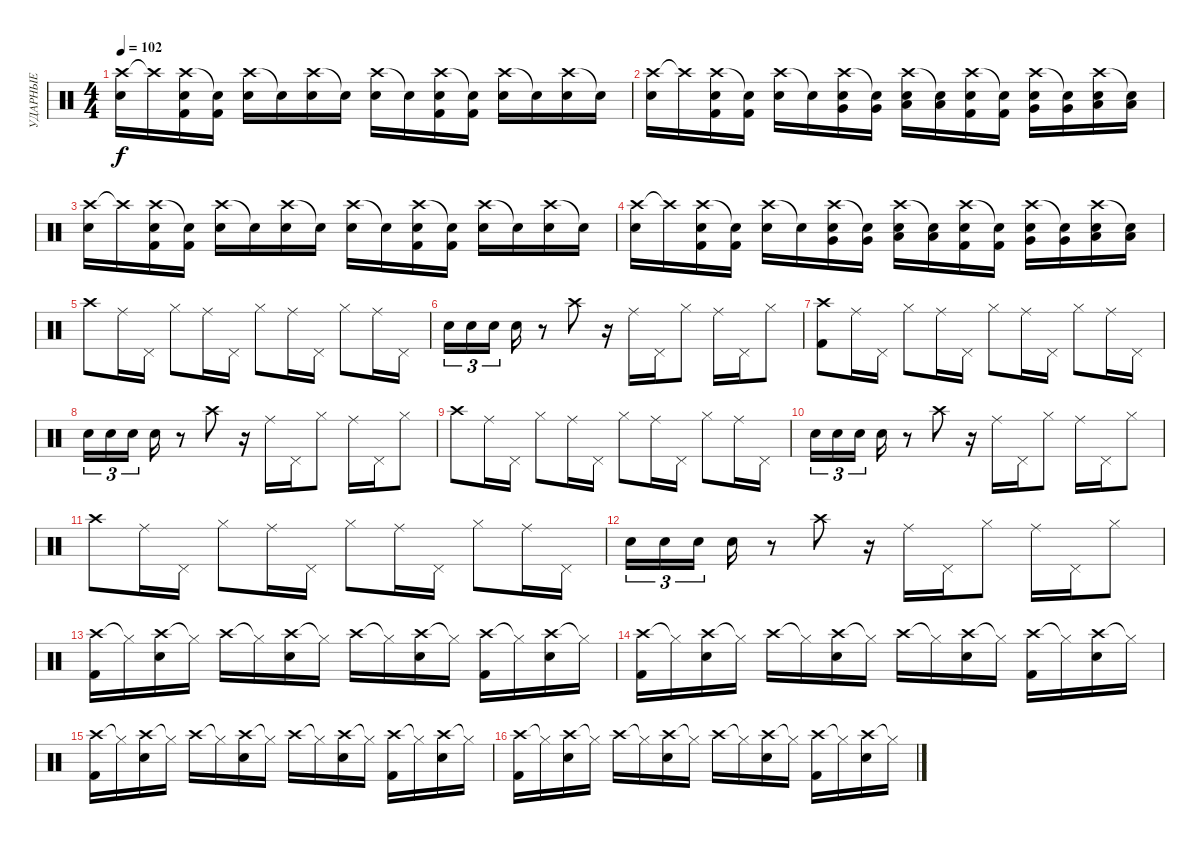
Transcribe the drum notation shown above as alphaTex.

\track ("УДАРНЫЕ" "УДАРНЫЕ") {instrument percussion}
\staff {score}
\articulation defaults
\ts (4 4)
\tempo 102
\clef neutral
\ks c
("Crash high (hit)" "Electric Snare (hit)").16{dy f} "Crash high (hit)"{t}.16 ("Crash high (hit)" "Kick (hit) 2" "Electric Snare (hit)").16 ("Snare (hit)"{t} "Kick (hit) 2").16 ("Crash high (hit)" "Electric Snare (hit)").16 "Snare (hit)"{t}.16 ("Crash high (hit)" "Electric Snare (hit)").16 "Snare (hit)"{t}.16 ("Crash high (hit)" "Electric Snare (hit)").16 "Snare (hit)"{t}.16 ("Crash high (hit)" "Kick (hit) 2" "Electric Snare (hit)").16 ("Snare (hit)"{t} "Kick (hit) 2").16 ("Crash high (hit)" "Electric Snare (hit)").16 "Snare (hit)"{t}.16 ("Crash high (hit)" "Electric Snare (hit)").16 "Snare (hit)"{t}.16 |
("Crash high (hit)" "Electric Snare (hit)").16 "Crash high (hit)"{t}.16 ("Crash high (hit)" "Kick (hit) 2" "Electric Snare (hit)").16 ("Snare (hit)"{t} "Kick (hit) 2").16 ("Crash high (hit)" "Electric Snare (hit)").16 "Snare (hit)"{t}.16 ("Crash high (hit)" "Very Low Tom (hit)" "Electric Snare (hit)").16 ("Snare (hit)"{t} "Very Low Tom (hit)").16 ("Crash high (hit)" "Low Tom (hit)" "Electric Snare (hit)").16 ("Snare (hit)"{t} "Low Tom (hit)").16 ("Crash high (hit)" "Kick (hit) 2" "Electric Snare (hit)").16 ("Snare (hit)"{t} "Kick (hit) 2").16 ("Crash high (hit)" "Very Low Tom (hit)" "Electric Snare (hit)").16 ("Snare (hit)"{t} "Very Low Tom (hit)").16 ("Crash high (hit)" "Low Tom (hit)" "Electric Snare (hit)").16 ("Snare (hit)"{t} "Low Tom (hit)").16 |
("Crash high (hit)" "Electric Snare (hit)").16 "Crash high (hit)"{t}.16 ("Crash high (hit)" "Kick (hit) 2" "Electric Snare (hit)").16 ("Snare (hit)"{t} "Kick (hit) 2").16 ("Crash high (hit)" "Electric Snare (hit)").16 "Snare (hit)"{t}.16 ("Crash high (hit)" "Electric Snare (hit)").16 "Snare (hit)"{t}.16 ("Crash high (hit)" "Electric Snare (hit)").16 "Snare (hit)"{t}.16 ("Crash high (hit)" "Kick (hit) 2" "Electric Snare (hit)").16 ("Snare (hit)"{t} "Kick (hit) 2").16 ("Crash high (hit)" "Electric Snare (hit)").16 "Snare (hit)"{t}.16 ("Crash high (hit)" "Electric Snare (hit)").16 "Snare (hit)"{t}.16 |
("Crash high (hit)" "Electric Snare (hit)").16 "Crash high (hit)"{t}.16 ("Crash high (hit)" "Kick (hit) 2" "Electric Snare (hit)").16 ("Snare (hit)"{t} "Kick (hit) 2").16 ("Crash high (hit)" "Electric Snare (hit)").16 "Snare (hit)"{t}.16 ("Crash high (hit)" "Very Low Tom (hit)" "Electric Snare (hit)").16 ("Snare (hit)"{t} "Very Low Tom (hit)").16 ("Crash high (hit)" "Low Tom (hit)" "Electric Snare (hit)").16 ("Snare (hit)"{t} "Low Tom (hit)").16 ("Crash high (hit)" "Kick (hit) 2" "Electric Snare (hit)").16 ("Snare (hit)"{t} "Kick (hit) 2").16 ("Crash high (hit)" "Very Low Tom (hit)" "Electric Snare (hit)").16 ("Snare (hit)"{t} "Very Low Tom (hit)").16 ("Crash high (hit)" "Low Tom (hit)" "Electric Snare (hit)").16 ("Snare (hit)"{t} "Low Tom (hit)").16 |
"Crash high (hit)".8 "Ride (middle)".16 "Pedal Hi-Hat (hit)".16 "Hi-Hat (closed)".8 "Ride (middle)".16 "Pedal Hi-Hat (hit)".16 "Hi-Hat (closed)".8 "Ride (middle)".16 "Pedal Hi-Hat (hit)".16 "Hi-Hat (closed)".8 "Ride (middle)".16 "Pedal Hi-Hat (hit)".16 |
"Electric Snare (hit)".16{tu (3 2)} "Electric Snare (hit)".16{tu (3 2)} "Electric Snare (hit)".16{tu (3 2) beam splitsecondary} "Electric Snare (hit)".16 r.8 "Crash high (hit)".8 r.16 "Ride (middle)".16 "Pedal Hi-Hat (hit)".16 "Hi-Hat (closed)".8 "Ride (middle)".16 "Pedal Hi-Hat (hit)".16 "Hi-Hat (closed)".8 |
("Crash high (hit)" "Kick (hit) 2").8 "Ride (middle)".16 "Pedal Hi-Hat (hit)".16 "Hi-Hat (closed)".8 "Ride (middle)".16 "Pedal Hi-Hat (hit)".16 "Hi-Hat (closed)".8 "Ride (middle)".16 "Pedal Hi-Hat (hit)".16 "Hi-Hat (closed)".8 "Ride (middle)".16 "Pedal Hi-Hat (hit)".16 |
"Electric Snare (hit)".16{tu (3 2)} "Electric Snare (hit)".16{tu (3 2)} "Electric Snare (hit)".16{tu (3 2) beam splitsecondary} "Electric Snare (hit)".16 r.8 "Crash high (hit)".8 r.16 "Ride (middle)".16 "Pedal Hi-Hat (hit)".16 "Hi-Hat (closed)".8 "Ride (middle)".16 "Pedal Hi-Hat (hit)".16 "Hi-Hat (closed)".8 |
"Crash high (hit)".8 "Ride (middle)".16 "Pedal Hi-Hat (hit)".16 "Hi-Hat (closed)".8 "Ride (middle)".16 "Pedal Hi-Hat (hit)".16 "Hi-Hat (closed)".8 "Ride (middle)".16 "Pedal Hi-Hat (hit)".16 "Hi-Hat (closed)".8 "Ride (middle)".16 "Pedal Hi-Hat (hit)".16 |
"Electric Snare (hit)".16{tu (3 2)} "Electric Snare (hit)".16{tu (3 2)} "Electric Snare (hit)".16{tu (3 2) beam splitsecondary} "Electric Snare (hit)".16 r.8 "Crash high (hit)".8 r.16 "Ride (middle)".16 "Pedal Hi-Hat (hit)".16 "Hi-Hat (closed)".8 "Ride (middle)".16 "Pedal Hi-Hat (hit)".16 "Hi-Hat (closed)".8 |
"Crash high (hit)".8 "Ride (middle)".16 "Pedal Hi-Hat (hit)".16 "Hi-Hat (closed)".8 "Ride (middle)".16 "Pedal Hi-Hat (hit)".16 "Hi-Hat (closed)".8 "Ride (middle)".16 "Pedal Hi-Hat (hit)".16 "Hi-Hat (closed)".8 "Ride (middle)".16 "Pedal Hi-Hat (hit)".16 |
"Electric Snare (hit)".16{tu (3 2)} "Electric Snare (hit)".16{tu (3 2)} "Electric Snare (hit)".16{tu (3 2) beam splitsecondary} "Electric Snare (hit)".16 r.8 "Crash high (hit)".8 r.16 "Ride (middle)".16 "Pedal Hi-Hat (hit)".16 "Hi-Hat (closed)".8 "Ride (middle)".16 "Pedal Hi-Hat (hit)".16 "Hi-Hat (closed)".8 |
("Crash high (hit)" "Kick (hit) 2").16 "Hi-Hat (closed)"{t}.16 ("Crash high (hit)" "Electric Snare (hit)").16 "Hi-Hat (closed)"{t}.16 "Crash high (hit)".16 "Hi-Hat (closed)"{t}.16 ("Crash high (hit)" "Electric Snare (hit)").16 "Hi-Hat (closed)"{t}.16 "Crash high (hit)".16 "Hi-Hat (closed)"{t}.16 ("Crash high (hit)" "Electric Snare (hit)").16 "Hi-Hat (closed)"{t}.16 ("Crash high (hit)" "Kick (hit) 2").16 "Hi-Hat (closed)"{t}.16 ("Crash high (hit)" "Electric Snare (hit)").16 "Hi-Hat (closed)"{t}.16 |
("Crash high (hit)" "Kick (hit) 2").16 "Hi-Hat (closed)"{t}.16 ("Crash high (hit)" "Electric Snare (hit)").16 "Hi-Hat (closed)"{t}.16 "Crash high (hit)".16 "Hi-Hat (closed)"{t}.16 ("Crash high (hit)" "Electric Snare (hit)").16 "Hi-Hat (closed)"{t}.16 "Crash high (hit)".16 "Hi-Hat (closed)"{t}.16 ("Crash high (hit)" "Electric Snare (hit)").16 "Hi-Hat (closed)"{t}.16 ("Crash high (hit)" "Kick (hit) 2").16 "Hi-Hat (closed)"{t}.16 ("Crash high (hit)" "Electric Snare (hit)").16 "Hi-Hat (closed)"{t}.16 |
("Crash high (hit)" "Kick (hit) 2").16 "Hi-Hat (closed)"{t}.16 ("Crash high (hit)" "Electric Snare (hit)").16 "Hi-Hat (closed)"{t}.16 "Crash high (hit)".16 "Hi-Hat (closed)"{t}.16 ("Crash high (hit)" "Electric Snare (hit)").16 "Hi-Hat (closed)"{t}.16 "Crash high (hit)".16 "Hi-Hat (closed)"{t}.16 ("Crash high (hit)" "Electric Snare (hit)").16 "Hi-Hat (closed)"{t}.16 ("Crash high (hit)" "Kick (hit) 2").16 "Hi-Hat (closed)"{t}.16 ("Crash high (hit)" "Electric Snare (hit)").16 "Hi-Hat (closed)"{t}.16 |
("Crash high (hit)" "Kick (hit) 2").16 "Hi-Hat (closed)"{t}.16 ("Crash high (hit)" "Electric Snare (hit)").16 "Hi-Hat (closed)"{t}.16 "Crash high (hit)".16 "Hi-Hat (closed)"{t}.16 ("Crash high (hit)" "Electric Snare (hit)").16 "Hi-Hat (closed)"{t}.16 "Crash high (hit)".16 "Hi-Hat (closed)"{t}.16 ("Crash high (hit)" "Electric Snare (hit)").16 "Hi-Hat (closed)"{t}.16 ("Crash high (hit)" "Kick (hit) 2").16 "Hi-Hat (closed)"{t}.16 ("Crash high (hit)" "Electric Snare (hit)").16 "Hi-Hat (closed)"{t}.16
